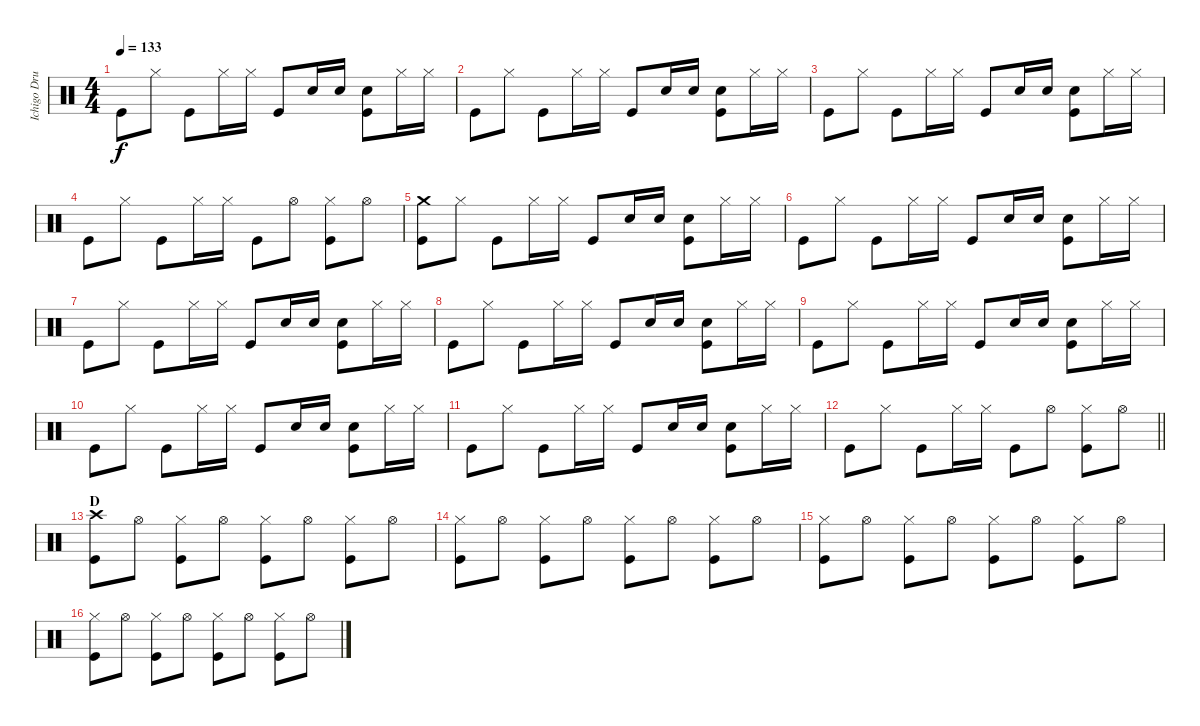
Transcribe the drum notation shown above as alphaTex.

\track ("Ichigo Drums" "Ichigo Dru") {instrument percussion}
\staff {score}
\articulation defaults
\ts (4 4)
\tempo 133
\clef neutral
\ks c "Kick (hit)".8{dy f} "Hi-Hat (closed)".8 "Kick (hit)".8 "Hi-Hat (closed)".16 "Hi-Hat (closed)".16 "Kick (hit)".8 "Snare (hit) 2".16 "Snare (hit) 2".16
("Snare (hit) 2" "Kick (hit)").8 "Hi-Hat (closed)".16 "Hi-Hat (closed)".16 |
"Kick (hit)".8 "Hi-Hat (closed)".8 "Kick (hit)".8 "Hi-Hat (closed)".16 "Hi-Hat (closed)".16 "Kick (hit)".8 "Snare (hit) 2".16 "Snare (hit) 2".16 ("Snare (hit) 2" "Kick (hit)").8 "Hi-Hat (closed)".16 "Hi-Hat (closed)".16 |
"Kick (hit)".8 "Hi-Hat (closed)".8 "Kick (hit)".8 "Hi-Hat (closed)".16 "Hi-Hat (closed)".16 "Kick (hit)".8 "Snare (hit) 2".16 "Snare (hit) 2".16 ("Snare (hit) 2" "Kick (hit)").8 "Hi-Hat (closed)".16 "Hi-Hat (closed)".16 |
"Kick (hit)".8 "Hi-Hat (closed)".8 "Kick (hit)".8 "Hi-Hat (closed)".16 "Hi-Hat (closed)".16 "Kick (hit)".8 "Hi-Hat (open)".8 ("Hi-Hat (closed)" "Kick (hit)").8 "Hi-Hat (open)".8 |
("Crash medium (hit)" "Kick (hit)").8 "Hi-Hat (closed)".8 "Kick (hit)".8 "Hi-Hat (closed)".16 "Hi-Hat (closed)".16 "Kick (hit)".8 "Snare (hit) 2".16 "Snare (hit) 2".16 ("Snare (hit) 2" "Kick (hit)").8 "Hi-Hat (closed)".16 "Hi-Hat (closed)".16 |
"Kick (hit)".8 "Hi-Hat (closed)".8 "Kick (hit)".8 "Hi-Hat (closed)".16 "Hi-Hat (closed)".16 "Kick (hit)".8 "Snare (hit) 2".16 "Snare (hit) 2".16 ("Snare (hit) 2" "Kick (hit)").8 "Hi-Hat (closed)".16 "Hi-Hat (closed)".16 |
"Kick (hit)".8 "Hi-Hat (closed)".8 "Kick (hit)".8 "Hi-Hat (closed)".16 "Hi-Hat (closed)".16 "Kick (hit)".8 "Snare (hit) 2".16 "Snare (hit) 2".16 ("Snare (hit) 2" "Kick (hit)").8 "Hi-Hat (closed)".16 "Hi-Hat (closed)".16 |
"Kick (hit)".8 "Hi-Hat (closed)".8 "Kick (hit)".8 "Hi-Hat (closed)".16 "Hi-Hat (closed)".16 "Kick (hit)".8 "Snare (hit) 2".16 "Snare (hit) 2".16 ("Snare (hit) 2" "Kick (hit)").8 "Hi-Hat (closed)".16 "Hi-Hat (closed)".16 |
"Kick (hit)".8 "Hi-Hat (closed)".8 "Kick (hit)".8 "Hi-Hat (closed)".16 "Hi-Hat (closed)".16 "Kick (hit)".8 "Snare (hit) 2".16 "Snare (hit) 2".16 ("Snare (hit) 2" "Kick (hit)").8 "Hi-Hat (closed)".16 "Hi-Hat (closed)".16 |
"Kick (hit)".8 "Hi-Hat (closed)".8 "Kick (hit)".8 "Hi-Hat (closed)".16 "Hi-Hat (closed)".16 "Kick (hit)".8 "Snare (hit) 2".16 "Snare (hit) 2".16 ("Snare (hit) 2" "Kick (hit)").8 "Hi-Hat (closed)".16 "Hi-Hat (closed)".16 |
"Kick (hit)".8 "Hi-Hat (closed)".8 "Kick (hit)".8 "Hi-Hat (closed)".16 "Hi-Hat (closed)".16 "Kick (hit)".8 "Snare (hit) 2".16 "Snare (hit) 2".16 ("Snare (hit) 2" "Kick (hit)").8 "Hi-Hat (closed)".16 "Hi-Hat (closed)".16 |
\barLineRight lightlight "Kick (hit)".8 "Hi-Hat (closed)".8 "Kick (hit)".8 "Hi-Hat (closed)".16 "Hi-Hat (closed)".16 "Kick (hit)".8 "Hi-Hat (open)".8
("Hi-Hat (closed)" "Kick (hit)").8 "Hi-Hat (open)".8 |
\section ("" "D")
("Crash high (hit)" "Kick (hit)").8 "Hi-Hat (open)".8 ("Hi-Hat (closed)" "Kick (hit)").8 "Hi-Hat (open)".8 ("Hi-Hat (closed)" "Kick (hit)").8 "Hi-Hat (open)".8 ("Hi-Hat (closed)" "Kick (hit)").8 "Hi-Hat (open)".8 |
("Hi-Hat (closed)" "Kick (hit)").8 "Hi-Hat (open)".8 ("Hi-Hat (closed)" "Kick (hit)").8 "Hi-Hat (open)".8 ("Hi-Hat (closed)" "Kick (hit)").8 "Hi-Hat (open)".8 ("Hi-Hat (closed)" "Kick (hit)").8 "Hi-Hat (open)".8 |
("Hi-Hat (closed)" "Kick (hit)").8 "Hi-Hat (open)".8 ("Hi-Hat (closed)" "Kick (hit)").8 "Hi-Hat (open)".8 ("Hi-Hat (closed)" "Kick (hit)").8 "Hi-Hat (open)".8 ("Hi-Hat (closed)" "Kick (hit)").8 "Hi-Hat (open)".8 |
("Hi-Hat (closed)" "Kick (hit)").8 "Hi-Hat (open)".8 ("Hi-Hat (closed)" "Kick (hit)").8 "Hi-Hat (open)".8 ("Hi-Hat (closed)" "Kick (hit)").8 "Hi-Hat (open)".8 ("Hi-Hat (closed)" "Kick (hit)").8 "Hi-Hat (open)".8
